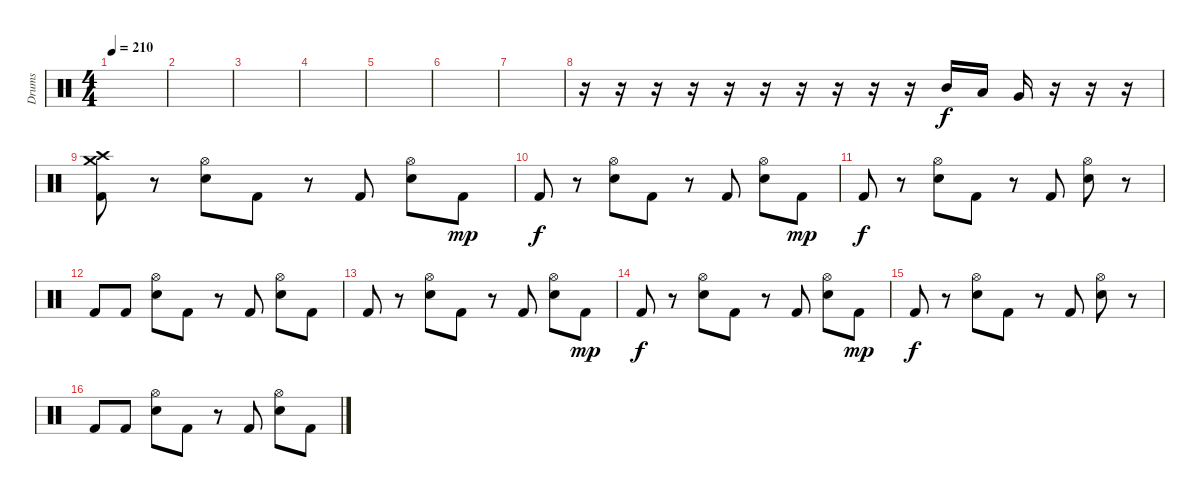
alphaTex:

\track ("Drums" "Drums") {instrument percussion}
\staff {score}
\articulation defaults
\ts (4 4)
\tempo 210
\clef neutral
\ks c
|
|
|
|
|
|
|
r.16 r.16 r.16 r.16 r.16 r.16 r.16 r.16 r.16 r.16 "Mid Tom (hit)".16 "Low Tom (hit)".16 "Very Low Tom (hit)".16 r.16 r.16 r.16 |
("Crash high (hit)" "Crash medium (hit)" "Kick (hit) 2").8 r.8 ("Hi-Hat (open)" "Electric Snare (hit)").8 "Kick (hit) 2".8 r.8 "Kick (hit) 2".8 ("Hi-Hat (open)" "Electric Snare (hit)").8 "Kick (hit) 2".8{dy mp} |
"Kick (hit) 2".8{dy f} r.8 ("Hi-Hat (open)" "Electric Snare (hit)").8 "Kick (hit) 2".8 r.8 "Kick (hit) 2".8 ("Hi-Hat (open)" "Electric Snare (hit)").8 "Kick (hit) 2".8{dy mp} |
"Kick (hit) 2".8{dy f} r.8 ("Hi-Hat (open)" "Electric Snare (hit)").8 "Kick (hit) 2".8 r.8 "Kick (hit) 2".8 ("Hi-Hat (open)" "Electric Snare (hit)").8 r.8 |
"Kick (hit) 2".8 "Kick (hit) 2".8 ("Hi-Hat (open)" "Electric Snare (hit)").8 "Kick (hit) 2".8 r.8 "Kick (hit) 2".8 ("Hi-Hat (open)" "Electric Snare (hit)").8 "Kick (hit) 2".8 |
"Kick (hit) 2".8 r.8 ("Hi-Hat (open)" "Electric Snare (hit)").8 "Kick (hit) 2".8 r.8 "Kick (hit) 2".8 ("Hi-Hat (open)" "Electric Snare (hit)").8 "Kick (hit) 2".8{dy mp} |
"Kick (hit) 2".8{dy f} r.8 ("Hi-Hat (open)" "Electric Snare (hit)").8 "Kick (hit) 2".8 r.8 "Kick (hit) 2".8 ("Hi-Hat (open)" "Electric Snare (hit)").8 "Kick (hit) 2".8{dy mp} |
"Kick (hit) 2".8{dy f} r.8 ("Hi-Hat (open)" "Electric Snare (hit)").8 "Kick (hit) 2".8 r.8 "Kick (hit) 2".8 ("Hi-Hat (open)" "Electric Snare (hit)").8 r.8 |
"Kick (hit) 2".8 "Kick (hit) 2".8 ("Hi-Hat (open)" "Electric Snare (hit)").8 "Kick (hit) 2".8 r.8 "Kick (hit) 2".8 ("Hi-Hat (open)" "Electric Snare (hit)").8 "Kick (hit) 2".8
